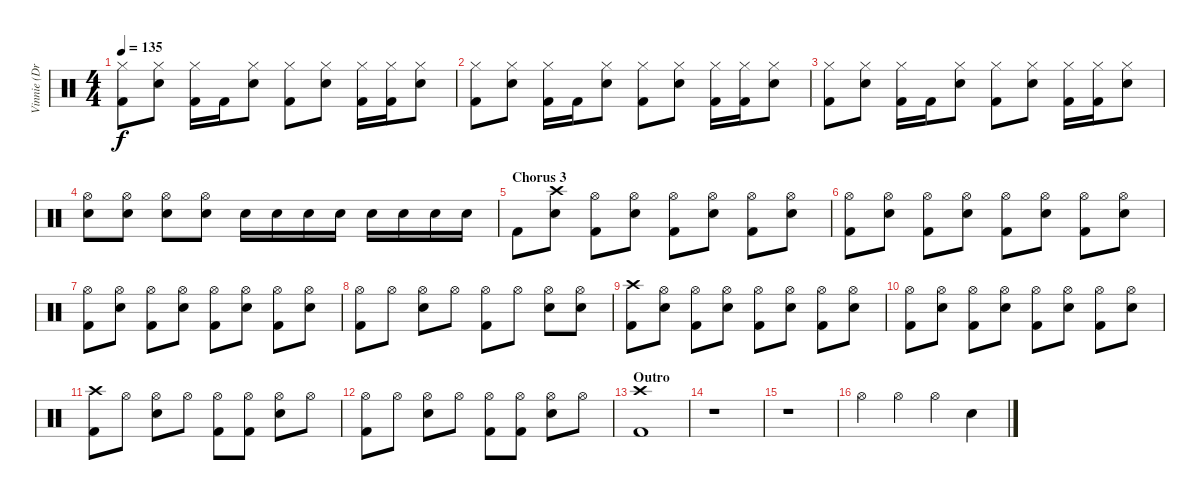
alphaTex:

\track ("Vinnie (Drums)" "Vinnie (Dr") {instrument percussion}
\staff {score}
\articulation defaults
\ts (4 4)
\tempo 135
\clef neutral
\ks c
("Hi-Hat (closed)" "Kick (hit) 2").8{dy f} ("Hi-Hat (closed)" "Snare (hit) 2").8 ("Hi-Hat (closed)" "Kick (hit) 2").16 "Kick (hit) 2".16 ("Hi-Hat (closed)" "Snare (hit) 2").8 ("Hi-Hat (closed)" "Kick (hit) 2").8 ("Hi-Hat (closed)" "Snare (hit) 2").8 ("Hi-Hat (closed)" "Kick (hit) 2").16 ("Hi-Hat (closed)" "Kick (hit) 2").16 ("Hi-Hat (closed)" "Snare (hit) 2").8 |
("Hi-Hat (closed)" "Kick (hit) 2").8 ("Hi-Hat (closed)" "Snare (hit) 2").8 ("Hi-Hat (closed)" "Kick (hit) 2").16 "Kick (hit) 2".16 ("Hi-Hat (closed)" "Snare (hit) 2").8 ("Hi-Hat (closed)" "Kick (hit) 2").8 ("Hi-Hat (closed)" "Snare (hit) 2").8 ("Hi-Hat (closed)" "Kick (hit) 2").16 ("Hi-Hat (closed)" "Kick (hit) 2").16 ("Hi-Hat (closed)" "Snare (hit) 2").8 |
("Hi-Hat (closed)" "Kick (hit) 2").8 ("Hi-Hat (closed)" "Snare (hit) 2").8 ("Hi-Hat (closed)" "Kick (hit) 2").16 "Kick (hit) 2".16 ("Hi-Hat (closed)" "Snare (hit) 2").8 ("Hi-Hat (closed)" "Kick (hit) 2").8 ("Hi-Hat (closed)" "Snare (hit) 2").8 ("Hi-Hat (closed)" "Kick (hit) 2").16 ("Hi-Hat (closed)" "Kick (hit) 2").16 ("Hi-Hat (closed)" "Snare (hit) 2").8 |
("Hi-Hat (open)" "Snare (hit) 2").8 ("Hi-Hat (open)" "Snare (hit) 2").8 ("Hi-Hat (open)" "Snare (hit) 2").8 ("Hi-Hat (open)" "Snare (hit) 2").8 "Snare (hit) 2".16 "Snare (hit) 2".16 "Snare (hit) 2".16 "Snare (hit) 2".16 "Snare (hit) 2".16 "Snare (hit) 2".16 "Snare (hit) 2".16 "Snare (hit) 2".16 |
\section ("" "Chorus 3")
"Kick (hit) 2".8 ("Crash high (hit)" "Snare (hit) 2").8 ("Hi-Hat (open)" "Kick (hit) 2").8 ("Hi-Hat (open)" "Snare (hit) 2").8 ("Hi-Hat (open)" "Kick (hit) 2").8 ("Hi-Hat (open)" "Snare (hit) 2").8 ("Hi-Hat (open)" "Kick (hit) 2").8 ("Hi-Hat (open)" "Snare (hit) 2").8 |
("Hi-Hat (open)" "Kick (hit) 2").8 ("Hi-Hat (open)" "Snare (hit) 2").8 ("Hi-Hat (open)" "Kick (hit) 2").8 ("Hi-Hat (open)" "Snare (hit) 2").8 ("Hi-Hat (open)" "Kick (hit) 2").8 ("Hi-Hat (open)" "Snare (hit) 2").8 ("Hi-Hat (open)" "Kick (hit) 2").8 ("Hi-Hat (open)" "Snare (hit) 2").8 |
("Hi-Hat (open)" "Kick (hit) 2").8 ("Hi-Hat (open)" "Snare (hit) 2").8 ("Hi-Hat (open)" "Kick (hit) 2").8 ("Hi-Hat (open)" "Snare (hit) 2").8 ("Hi-Hat (open)" "Kick (hit) 2").8 ("Hi-Hat (open)" "Snare (hit) 2").8 ("Hi-Hat (open)" "Kick (hit) 2").8 ("Hi-Hat (open)" "Snare (hit) 2").8 |
("Hi-Hat (open)" "Kick (hit) 2").8 "Hi-Hat (open)".8 ("Hi-Hat (open)" "Snare (hit) 2").8 "Hi-Hat (open)".8 ("Hi-Hat (open)" "Kick (hit) 2").8 "Hi-Hat (open)".8 ("Hi-Hat (open)" "Snare (hit) 2").8 ("Hi-Hat (open)" "Snare (hit) 2").8 |
("Crash high (hit)" "Kick (hit) 2").8 ("Hi-Hat (open)" "Snare (hit) 2").8 ("Hi-Hat (open)" "Kick (hit) 2").8 ("Hi-Hat (open)" "Snare (hit) 2").8 ("Hi-Hat (open)" "Kick (hit) 2").8 ("Hi-Hat (open)" "Snare (hit) 2").8 ("Hi-Hat (open)" "Kick (hit) 2").8 ("Hi-Hat (open)" "Snare (hit) 2").8 |
("Hi-Hat (open)" "Kick (hit) 2").8 ("Hi-Hat (open)" "Snare (hit) 2").8 ("Hi-Hat (open)" "Kick (hit) 2").8 ("Hi-Hat (open)" "Snare (hit) 2").8 ("Hi-Hat (open)" "Kick (hit) 2").8 ("Hi-Hat (open)" "Snare (hit) 2").8 ("Hi-Hat (open)" "Kick (hit) 2").8 ("Hi-Hat (open)" "Snare (hit) 2").8 |
("Crash high (hit)" "Kick (hit) 2").8 "Hi-Hat (open)".8 ("Hi-Hat (open)" "Snare (hit) 2").8 "Hi-Hat (open)".8 ("Hi-Hat (open)" "Kick (hit) 2").8 ("Hi-Hat (open)" "Kick (hit) 2").8 ("Hi-Hat (open)" "Snare (hit) 2").8 "Hi-Hat (open)".8 |
("Hi-Hat (open)" "Kick (hit) 2").8 "Hi-Hat (open)".8 ("Hi-Hat (open)" "Snare (hit) 2").8 "Hi-Hat (open)".8 ("Hi-Hat (open)" "Kick (hit) 2").8 ("Hi-Hat (open)" "Kick (hit) 2").8 ("Hi-Hat (open)" "Snare (hit) 2").8 "Hi-Hat (open)".8 |
\section ("" "Outro")
("Crash high (hit)" "Kick (hit) 2").1 |
r.1 |
r.1 |
"Hi-Hat (open)".4 "Hi-Hat (open)".4 "Hi-Hat (open)".4 "Snare (hit) 2".4
